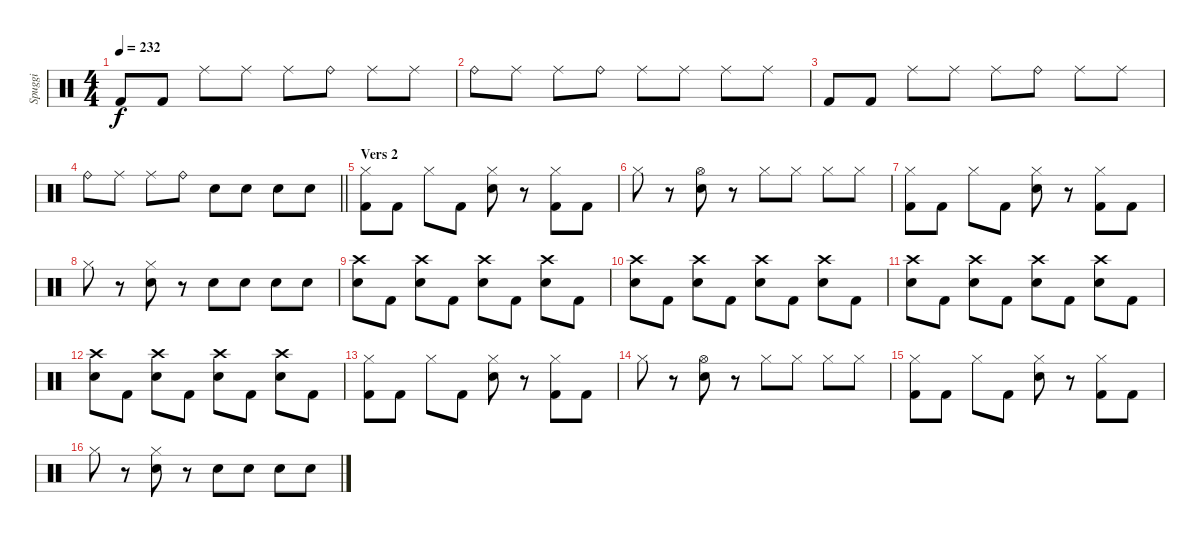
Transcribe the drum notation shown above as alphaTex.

\track ("Spuggi" "Spuggi") {instrument percussion}
\staff {score}
\articulation defaults
\ts (4 4)
\tempo 232
\clef neutral
\ks c "Kick (hit) 2".8{dy f} "Kick (hit) 2".8 "Ride (middle)".8 "Ride (middle)".8 "Ride (middle)".8 "Ride (bell)".8 "Ride (middle)".8 "Ride (middle)".8
|
"Ride (bell)".8 "Ride (middle)".8 "Ride (middle)".8 "Ride (bell)".8 "Ride (middle)".8 "Ride (middle)".8 "Ride (middle)".8 "Ride (middle)".8 |
"Kick (hit) 2".8 "Kick (hit) 2".8 "Ride (middle)".8 "Ride (middle)".8 "Ride (middle)".8 "Ride (bell)".8 "Ride (middle)".8 "Ride (middle)".8 |
\barLineRight lightlight "Ride (bell)".8 "Ride (middle)".8 "Ride (middle)".8 "Ride (bell)".8 "Snare (hit) 2".8 "Snare (hit) 2".8 "Snare (hit) 2".8 "Snare (hit) 2".8
|
\section ("" "Vers 2")
("Hi-Hat (closed)" "Kick (hit) 2").8 "Kick (hit) 2".8 "Hi-Hat (closed)".8 "Kick (hit) 2".8 ("Hi-Hat (closed)" "Snare (hit) 2").8 r.8 ("Hi-Hat (closed)" "Kick (hit) 2").8 "Kick (hit) 2".8 |
"Hi-Hat (closed)".8 r.8 ("Hi-Hat (open)" "Snare (hit) 2").8 r.8 "Hi-Hat (closed)".8 "Hi-Hat (closed)".8 "Hi-Hat (closed)".8 "Hi-Hat (closed)".8 |
("Hi-Hat (closed)" "Kick (hit) 2").8 "Kick (hit) 2".8 "Hi-Hat (closed)".8 "Kick (hit) 2".8 ("Hi-Hat (closed)" "Snare (hit) 2").8 r.8 ("Hi-Hat (closed)" "Kick (hit) 2").8 "Kick (hit) 2".8 |
"Hi-Hat (closed)".8 r.8 ("Hi-Hat (closed)" "Snare (hit) 2").8 r.8 "Snare (hit) 2".8 "Snare (hit) 2".8 "Snare (hit) 2".8 "Snare (hit) 2".8 |
("Crash high (hit)" "Snare (hit) 2").8 "Kick (hit) 2".8 ("Crash high (hit)" "Snare (hit) 2").8 "Kick (hit) 2".8 ("Crash high (hit)" "Snare (hit) 2").8 "Kick (hit) 2".8 ("Crash high (hit)" "Snare (hit) 2").8 "Kick (hit) 2".8 |
("Crash high (hit)" "Snare (hit) 2").8 "Kick (hit) 2".8 ("Crash high (hit)" "Snare (hit) 2").8 "Kick (hit) 2".8 ("Crash high (hit)" "Snare (hit) 2").8 "Kick (hit) 2".8 ("Crash high (hit)" "Snare (hit) 2").8 "Kick (hit) 2".8 |
("Crash high (hit)" "Snare (hit) 2").8 "Kick (hit) 2".8 ("Crash high (hit)" "Snare (hit) 2").8 "Kick (hit) 2".8 ("Crash high (hit)" "Snare (hit) 2").8 "Kick (hit) 2".8 ("Crash high (hit)" "Snare (hit) 2").8 "Kick (hit) 2".8 |
("Crash high (hit)" "Snare (hit) 2").8 "Kick (hit) 2".8 ("Crash high (hit)" "Snare (hit) 2").8 "Kick (hit) 2".8 ("Crash high (hit)" "Snare (hit) 2").8 "Kick (hit) 2".8 ("Crash high (hit)" "Snare (hit) 2").8 "Kick (hit) 2".8 |
("Hi-Hat (closed)" "Kick (hit) 2").8 "Kick (hit) 2".8 "Hi-Hat (closed)".8 "Kick (hit) 2".8 ("Hi-Hat (closed)" "Snare (hit) 2").8 r.8 ("Hi-Hat (closed)" "Kick (hit) 2").8 "Kick (hit) 2".8 |
"Hi-Hat (closed)".8 r.8 ("Hi-Hat (open)" "Snare (hit) 2").8 r.8 "Hi-Hat (closed)".8 "Hi-Hat (closed)".8 "Hi-Hat (closed)".8 "Hi-Hat (closed)".8 |
("Hi-Hat (closed)" "Kick (hit) 2").8 "Kick (hit) 2".8 "Hi-Hat (closed)".8 "Kick (hit) 2".8 ("Hi-Hat (closed)" "Snare (hit) 2").8 r.8 ("Hi-Hat (closed)" "Kick (hit) 2").8 "Kick (hit) 2".8 |
"Hi-Hat (closed)".8 r.8 ("Hi-Hat (closed)" "Snare (hit) 2").8 r.8 "Snare (hit) 2".8 "Snare (hit) 2".8 "Snare (hit) 2".8 "Snare (hit) 2".8
